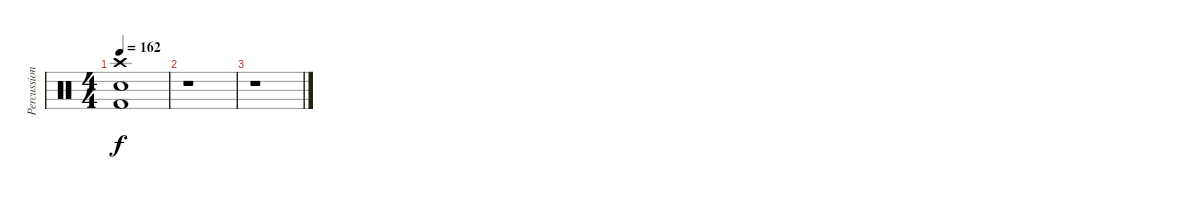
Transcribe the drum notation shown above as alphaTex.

\track ("Percussions" "Percussion") {instrument percussion}
\staff {score}
\articulation defaults
\ts (4 4)
\tempo 162
\clef neutral
\ks c
("Crash high (hit)" "Electric Snare (hit)" "Kick (hit) 2").1{dy f} |
r.1 |
r.1
